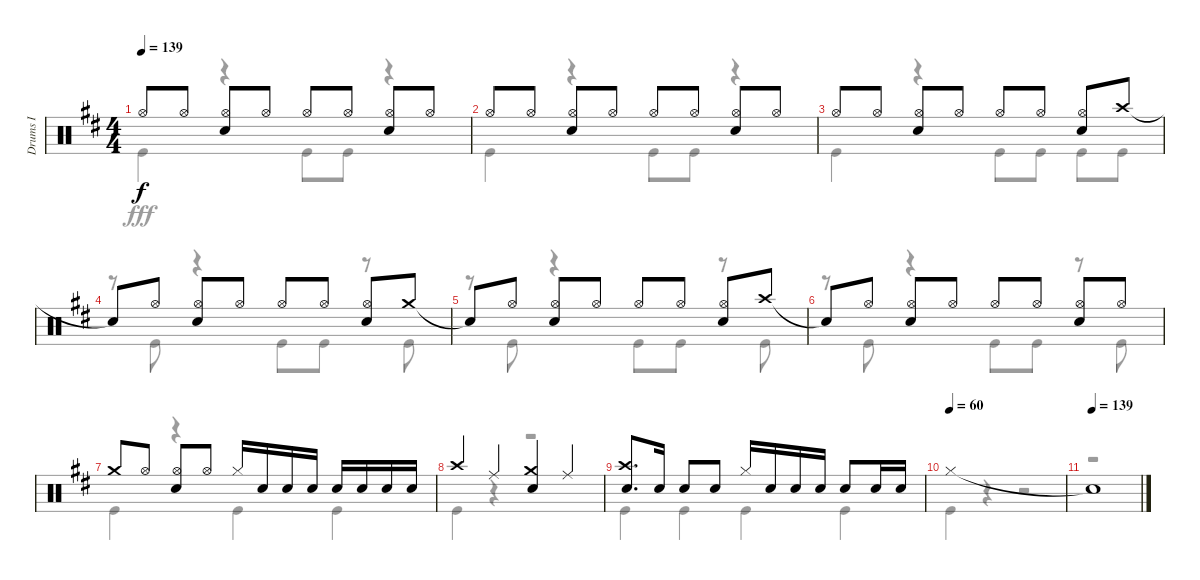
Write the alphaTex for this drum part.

\track ("Drums I" "Drums I") {instrument percussion}
\staff {score}
\articulation defaults
\voice
\ts (4 4)
\tempo 139
\clef neutral
\ks d "Hi-Hat (open)".8{dy f} "Hi-Hat (open)".8
("Hi-Hat (open)" "Snare (hit) 2").8 "Hi-Hat (open)".8 "Hi-Hat (open)".8 "Hi-Hat (open)".8 ("Hi-Hat (open)" "Snare (hit) 2").8 "Hi-Hat (open)".8 |
"Hi-Hat (open)".8 "Hi-Hat (open)".8 ("Hi-Hat (open)" "Snare (hit) 2").8 "Hi-Hat (open)".8 "Hi-Hat (open)".8 "Hi-Hat (open)".8 ("Hi-Hat (open)" "Snare (hit) 2").8 "Hi-Hat (open)".8 |
"Hi-Hat (open)".8 "Hi-Hat (open)".8 ("Hi-Hat (open)" "Snare (hit) 2").8 "Hi-Hat (open)".8 "Hi-Hat (open)".8 "Hi-Hat (open)".8 ("Hi-Hat (open)" "Snare (hit) 2").8 "Crash high (hit)".8 |
"Snare (hit)"{t}.8 "Hi-Hat (open)".8 ("Hi-Hat (open)" "Snare (hit) 2").8 "Hi-Hat (open)".8 "Hi-Hat (open)".8 "Hi-Hat (open)".8 ("Hi-Hat (open)" "Snare (hit) 2").8 "Crash medium (hit)".8 |
"Snare (hit)"{t}.8 "Hi-Hat (open)".8 ("Hi-Hat (open)" "Snare (hit) 2").8 "Hi-Hat (open)".8 "Hi-Hat (open)".8 "Hi-Hat (open)".8 ("Hi-Hat (open)" "Snare (hit) 2").8 "Crash high (hit)".8 |
"Snare (hit)"{t}.8 "Hi-Hat (open)".8 ("Hi-Hat (open)" "Snare (hit) 2").8 "Hi-Hat (open)".8 "Hi-Hat (open)".8 "Hi-Hat (open)".8 ("Hi-Hat (open)" "Snare (hit) 2").8 "Hi-Hat (open)".8 |
"Crash medium (hit)".8 "Hi-Hat (open)".8 ("Hi-Hat (open)" "Snare (hit) 2").8 "Hi-Hat (open)".8 "Hi-Hat (closed)".16 "Snare (hit) 2".16 "Snare (hit) 2".16 "Snare (hit) 2".16 "Snare (hit) 2".16 "Snare (hit) 2".16 "Snare (hit) 2".16 "Snare (hit) 2".16 |
"Crash high (hit)".4 "Ride (middle)".4 ("Crash medium (hit)" "Snare (hit) 2").4 "Ride (middle)".4 |
("Crash high (hit)" "Snare (hit) 2").8{d} "Snare (hit) 2".16 "Snare (hit) 2".8 "Snare (hit) 2".8 "Hi-Hat (closed)".16 "Snare (hit) 2".16 "Snare (hit) 2".16 "Snare (hit) 2".16 "Snare (hit) 2".8 "Snare (hit) 2".16 "Snare (hit) 2".16 |
\tempo (60)
"Hi-Hat (closed)".1 |
\tempo (139)
"Snare (hit)"{t}.1
\voice
\clef neutral
\ottava regular
\simile none
\ks d "Kick (hit)".4{dy fff}
r.4 "Kick (hit)".8 "Kick (hit)".8 r.4 |
"Kick (hit)".4 r.4 "Kick (hit)".8 "Kick (hit)".8 r.4 |
"Kick (hit)".4 r.4 "Kick (hit)".8 "Kick (hit)".8 "Kick (hit)".8 "Kick (hit)".8 |
r.8 "Kick (hit)".8 r.4 "Kick (hit)".8 "Kick (hit)".8 r.8 "Kick (hit)".8 |
r.8 "Kick (hit)".8 r.4 "Kick (hit)".8 "Kick (hit)".8 r.8 "Kick (hit)".8 |
r.8 "Kick (hit)".8 r.4 "Kick (hit)".8 "Kick (hit)".8 r.8 "Kick (hit)".8 |
"Kick (hit)".4 r.4 "Kick (hit)".4 "Kick (hit)".4 |
"Kick (hit)".4 r.4 r.2 |
"Kick (hit)".4 "Kick (hit)".4 "Kick (hit)".4 "Kick (hit)".4 |
"Kick (hit)".4 r.4 r.2 |
r.1
